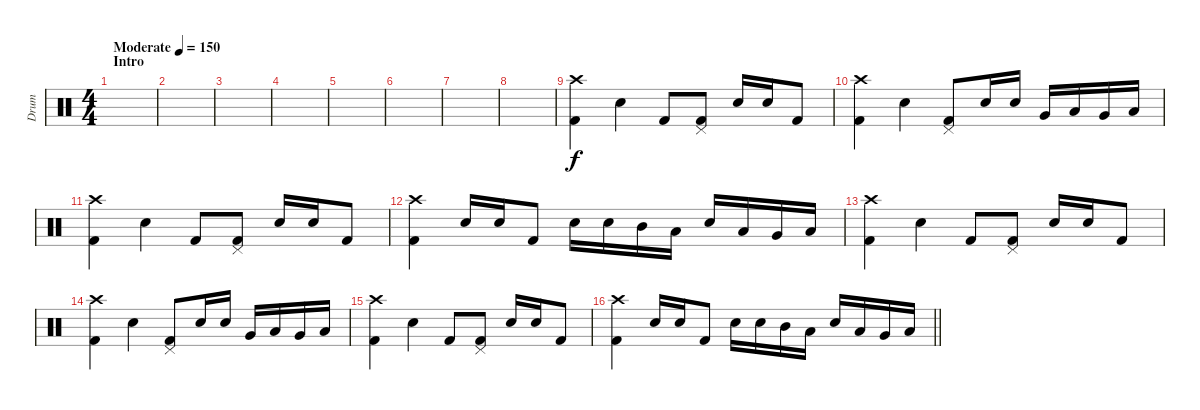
\track ("Drum" "Drum") {instrument percussion}
\staff {score}
\articulation defaults
\ts (4 4)
\section ("" "Intro")
\tempo (150 "Moderate")
\clef neutral
\ks c
|
|
|
|
|
|
|
|
("Kick (hit) 2" "Crash high (hit)").4 "Electric Snare (hit)".4 "Kick (hit) 2".8 ("Kick (hit) 2" "Pedal Hi-Hat (hit)").8 "Electric Snare (hit)".16 "Snare (hit) 2".16 "Kick (hit) 2".8 |
("Kick (hit) 2" "Crash high (hit)").4 "Electric Snare (hit)".4 ("Kick (hit) 2" "Pedal Hi-Hat (hit)").8 "Electric Snare (hit)".16 "Snare (hit) 2".16 "Very Low Tom (hit)".16 "Low Tom (hit)".16 "Very Low Tom (hit)".16 "Low Floor Tom (hit)".16 |
("Kick (hit) 2" "Crash high (hit)").4 "Electric Snare (hit)".4 "Kick (hit) 2".8 ("Kick (hit) 2" "Pedal Hi-Hat (hit)").8 "Electric Snare (hit)".16 "Snare (hit) 2".16 "Kick (hit) 2".8 |
("Kick (hit) 2" "Crash high (hit)").4 "Electric Snare (hit)".16 "Electric Snare (hit)".16 "Kick (hit) 2".8 "Electric Snare (hit)".16 "Electric Snare (hit)".16 "Mid Tom (hit)".16 "Low Tom (hit)".16 "Electric Snare (hit)".16 "Low Tom (hit)".16 "Very Low Tom (hit)".16 "Low Floor Tom (hit)".16 |
("Kick (hit) 2" "Crash high (hit)").4 "Electric Snare (hit)".4 "Kick (hit) 2".8 ("Kick (hit) 2" "Pedal Hi-Hat (hit)").8 "Electric Snare (hit)".16 "Snare (hit) 2".16 "Kick (hit) 2".8 |
("Kick (hit) 2" "Crash high (hit)").4 "Electric Snare (hit)".4 ("Kick (hit) 2" "Pedal Hi-Hat (hit)").8 "Electric Snare (hit)".16 "Snare (hit) 2".16 "Very Low Tom (hit)".16 "Low Tom (hit)".16 "Very Low Tom (hit)".16 "Low Floor Tom (hit)".16 |
("Kick (hit) 2" "Crash high (hit)").4 "Electric Snare (hit)".4 "Kick (hit) 2".8 ("Kick (hit) 2" "Pedal Hi-Hat (hit)").8 "Electric Snare (hit)".16 "Snare (hit) 2".16 "Kick (hit) 2".8 |
\barLineRight lightlight
("Kick (hit) 2" "Crash high (hit)").4 "Electric Snare (hit)".16 "Electric Snare (hit)".16 "Kick (hit) 2".8 "Electric Snare (hit)".16 "Electric Snare (hit)".16 "Mid Tom (hit)".16 "Low Tom (hit)".16 "Electric Snare (hit)".16 "Low Tom (hit)".16 "Very Low Tom (hit)".16 "Low Floor Tom (hit)".16
